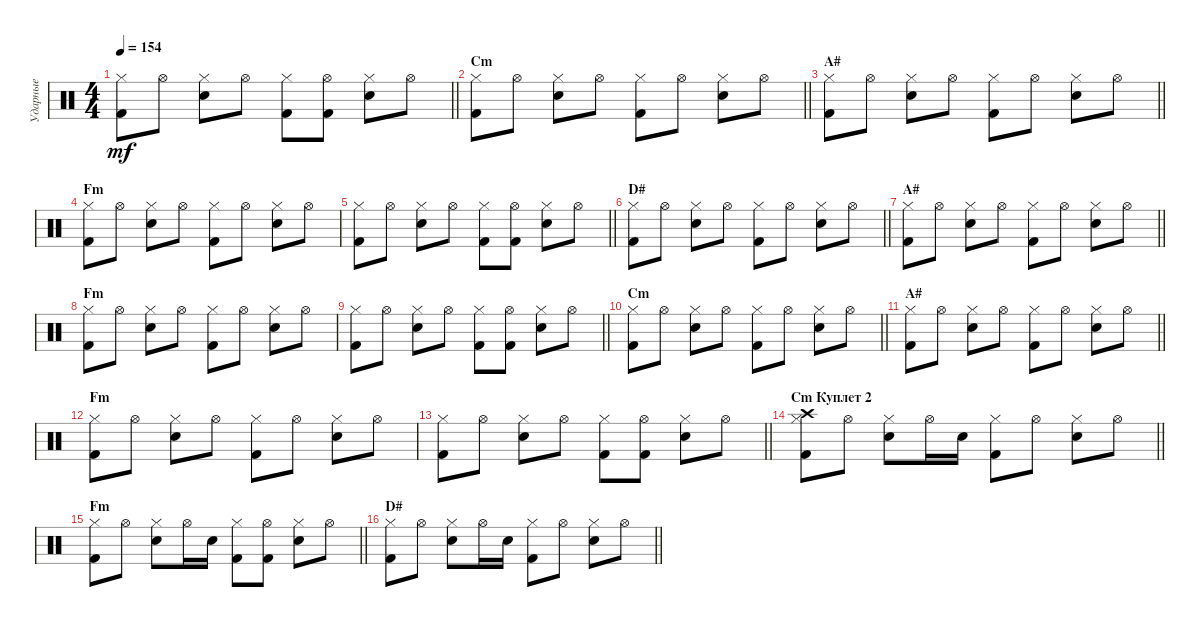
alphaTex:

\track ("Ударные" "Ударные") {instrument percussion}
\staff {score}
\articulation defaults
\ts (4 4)
\tempo 154
\clef neutral
\barLineRight lightlight
\ks c
("Hi-Hat (closed)" "Kick (hit) 2").8{dy mf} "Hi-Hat (open)".8 ("Hi-Hat (closed)" "Electric Snare (hit)").8 "Hi-Hat (open)".8 ("Hi-Hat (closed)" "Kick (hit) 2").8 ("Hi-Hat (open)" "Kick (hit) 2").8 ("Hi-Hat (closed)" "Electric Snare (hit)").8 "Hi-Hat (open)".8 |
\section ("" "Cm")
\barLineRight lightlight
("Hi-Hat (closed)" "Kick (hit) 2").8 "Hi-Hat (open)".8 ("Hi-Hat (closed)" "Electric Snare (hit)").8 "Hi-Hat (open)".8 ("Hi-Hat (closed)" "Kick (hit) 2").8 "Hi-Hat (open)".8 ("Hi-Hat (closed)" "Electric Snare (hit)").8 "Hi-Hat (open)".8 |
\section ("" "A#")
\barLineRight lightlight
("Hi-Hat (closed)" "Kick (hit) 2").8 "Hi-Hat (open)".8 ("Hi-Hat (closed)" "Electric Snare (hit)").8 "Hi-Hat (open)".8 ("Hi-Hat (closed)" "Kick (hit) 2").8 "Hi-Hat (open)".8 ("Hi-Hat (closed)" "Electric Snare (hit)").8 "Hi-Hat (open)".8 |
\section ("" "Fm")
("Hi-Hat (closed)" "Kick (hit) 2").8 "Hi-Hat (open)".8 ("Hi-Hat (closed)" "Electric Snare (hit)").8 "Hi-Hat (open)".8 ("Hi-Hat (closed)" "Kick (hit) 2").8 "Hi-Hat (open)".8 ("Hi-Hat (closed)" "Electric Snare (hit)").8 "Hi-Hat (open)".8 |
\barLineRight lightlight
("Hi-Hat (closed)" "Kick (hit) 2").8 "Hi-Hat (open)".8 ("Hi-Hat (closed)" "Electric Snare (hit)").8 "Hi-Hat (open)".8 ("Hi-Hat (closed)" "Kick (hit) 2").8 ("Hi-Hat (open)" "Kick (hit) 2").8 ("Hi-Hat (closed)" "Electric Snare (hit)").8 "Hi-Hat (open)".8 |
\section ("" "D#")
\barLineRight lightlight
("Hi-Hat (closed)" "Kick (hit) 2").8 "Hi-Hat (open)".8 ("Hi-Hat (closed)" "Electric Snare (hit)").8 "Hi-Hat (open)".8 ("Hi-Hat (closed)" "Kick (hit) 2").8 "Hi-Hat (open)".8 ("Hi-Hat (closed)" "Electric Snare (hit)").8 "Hi-Hat (open)".8 |
\section ("" "A#")
\barLineRight lightlight
("Hi-Hat (closed)" "Kick (hit) 2").8 "Hi-Hat (open)".8 ("Hi-Hat (closed)" "Electric Snare (hit)").8 "Hi-Hat (open)".8 ("Hi-Hat (closed)" "Kick (hit) 2").8 "Hi-Hat (open)".8 ("Hi-Hat (closed)" "Electric Snare (hit)").8 "Hi-Hat (open)".8 |
\section ("" "Fm")
("Hi-Hat (closed)" "Kick (hit) 2").8 "Hi-Hat (open)".8 ("Hi-Hat (closed)" "Electric Snare (hit)").8 "Hi-Hat (open)".8 ("Hi-Hat (closed)" "Kick (hit) 2").8 "Hi-Hat (open)".8 ("Hi-Hat (closed)" "Electric Snare (hit)").8 "Hi-Hat (open)".8 |
\barLineRight lightlight
("Hi-Hat (closed)" "Kick (hit) 2").8 "Hi-Hat (open)".8 ("Hi-Hat (closed)" "Electric Snare (hit)").8 "Hi-Hat (open)".8 ("Hi-Hat (closed)" "Kick (hit) 2").8 ("Hi-Hat (open)" "Kick (hit) 2").8 ("Hi-Hat (closed)" "Electric Snare (hit)").8 "Hi-Hat (open)".8 |
\section ("" "Cm")
\barLineRight lightlight
("Hi-Hat (closed)" "Kick (hit) 2").8 "Hi-Hat (open)".8 ("Hi-Hat (closed)" "Electric Snare (hit)").8 "Hi-Hat (open)".8 ("Hi-Hat (closed)" "Kick (hit) 2").8 "Hi-Hat (open)".8 ("Hi-Hat (closed)" "Electric Snare (hit)").8 "Hi-Hat (open)".8 |
\section ("" "A#")
\barLineRight lightlight
("Hi-Hat (closed)" "Kick (hit) 2").8 "Hi-Hat (open)".8 ("Hi-Hat (closed)" "Electric Snare (hit)").8 "Hi-Hat (open)".8 ("Hi-Hat (closed)" "Kick (hit) 2").8 "Hi-Hat (open)".8 ("Hi-Hat (closed)" "Electric Snare (hit)").8 "Hi-Hat (open)".8 |
\section ("" "Fm")
("Hi-Hat (closed)" "Kick (hit) 2").8 "Hi-Hat (open)".8 ("Hi-Hat (closed)" "Electric Snare (hit)").8 "Hi-Hat (open)".8 ("Hi-Hat (closed)" "Kick (hit) 2").8 "Hi-Hat (open)".8 ("Hi-Hat (closed)" "Electric Snare (hit)").8 "Hi-Hat (open)".8 |
\barLineRight lightlight
("Hi-Hat (closed)" "Kick (hit) 2").8 "Hi-Hat (open)".8 ("Hi-Hat (closed)" "Electric Snare (hit)").8 "Hi-Hat (open)".8 ("Hi-Hat (closed)" "Kick (hit) 2").8 ("Hi-Hat (open)" "Kick (hit) 2").8 ("Hi-Hat (closed)" "Electric Snare (hit)").8 "Hi-Hat (open)".8 |
\section ("" "Cm Куплет 2")
\barLineRight lightlight
("Crash high (hit)" "Hi-Hat (closed)" "Kick (hit) 2").8 "Hi-Hat (open)".8 ("Hi-Hat (closed)" "Electric Snare (hit)").8 "Hi-Hat (open)".16 "Electric Snare (hit)".16 ("Hi-Hat (closed)" "Kick (hit) 2").8 "Hi-Hat (open)".8 ("Hi-Hat (closed)" "Electric Snare (hit)").8 "Hi-Hat (open)".8 |
\section ("" "Fm")
\barLineRight lightlight
("Hi-Hat (closed)" "Kick (hit) 2").8 "Hi-Hat (open)".8 ("Hi-Hat (closed)" "Electric Snare (hit)").8 "Hi-Hat (open)".16 "Electric Snare (hit)".16 ("Hi-Hat (closed)" "Kick (hit) 2").8 ("Hi-Hat (open)" "Kick (hit) 2").8 ("Hi-Hat (closed)" "Electric Snare (hit)").8 "Hi-Hat (open)".8 |
\section ("" "D#")
\barLineRight lightlight
("Hi-Hat (closed)" "Kick (hit) 2").8 "Hi-Hat (open)".8 ("Hi-Hat (closed)" "Electric Snare (hit)").8 "Hi-Hat (open)".16 "Electric Snare (hit)".16 ("Hi-Hat (closed)" "Kick (hit) 2").8 "Hi-Hat (open)".8 ("Hi-Hat (closed)" "Electric Snare (hit)").8 "Hi-Hat (open)".8
